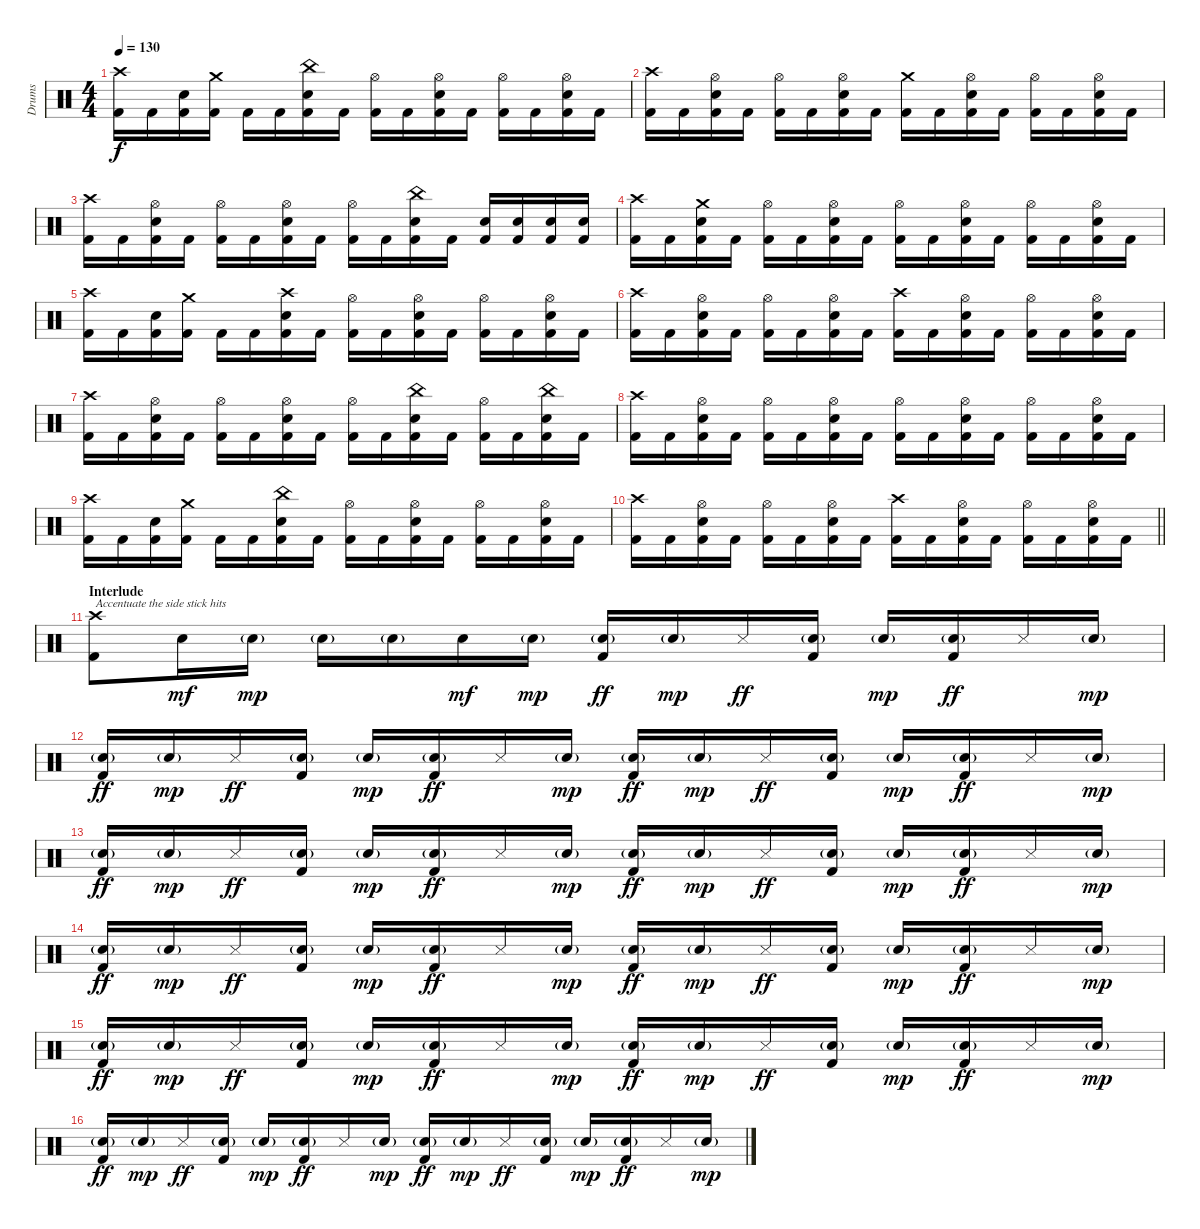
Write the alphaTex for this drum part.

\track ("Drums" "Drums") {instrument percussion}
\staff {score}
\articulation defaults
\ts (4 4)
\tempo 130
\clef neutral
\ks c
("Crash high (hit)" "Kick (hit) 2").16{dy f} "Kick (hit) 2".16 ("Electric Snare (hit)" "Kick (hit) 2").16 ("Crash medium (hit)" "Kick (hit) 2").16 "Kick (hit) 2".16 "Kick (hit) 2".16 ("China (hit)" "Electric Snare (hit)" "Kick (hit) 2").16 "Kick (hit) 2".16 ("Hi-Hat (open)" "Kick (hit) 2").16 "Kick (hit) 2".16 ("Hi-Hat (open)" "Electric Snare (hit)" "Kick (hit) 2").16 "Kick (hit) 2".16 ("Hi-Hat (open)" "Kick (hit) 2").16 "Kick (hit) 2".16 ("Hi-Hat (open)" "Electric Snare (hit)" "Kick (hit) 2").16 "Kick (hit) 2".16 |
("Crash high (hit)" "Kick (hit) 2").16 "Kick (hit) 2".16 ("Hi-Hat (open)" "Electric Snare (hit)" "Kick (hit) 2").16 "Kick (hit) 2".16 ("Hi-Hat (open)" "Kick (hit) 2").16 "Kick (hit) 2".16 ("Hi-Hat (open)" "Electric Snare (hit)" "Kick (hit) 2").16 "Kick (hit) 2".16 ("Crash medium (hit)" "Kick (hit) 2").16 "Kick (hit) 2".16 ("Hi-Hat (open)" "Electric Snare (hit)" "Kick (hit) 2").16 "Kick (hit) 2".16 ("Hi-Hat (open)" "Kick (hit) 2").16 "Kick (hit) 2".16 ("Hi-Hat (open)" "Electric Snare (hit)" "Kick (hit) 2").16 "Kick (hit) 2".16 |
("Crash high (hit)" "Kick (hit) 2").16 "Kick (hit) 2".16 ("Hi-Hat (open)" "Electric Snare (hit)" "Kick (hit) 2").16 "Kick (hit) 2".16 ("Hi-Hat (open)" "Kick (hit) 2").16 "Kick (hit) 2".16 ("Hi-Hat (open)" "Electric Snare (hit)" "Kick (hit) 2").16 "Kick (hit) 2".16 ("Hi-Hat (open)" "Kick (hit) 2").16 "Kick (hit) 2".16 ("China (hit)" "Electric Snare (hit)" "Kick (hit) 2").16 "Kick (hit) 2".16 ("Electric Snare (hit)" "Kick (hit) 2").16 ("Electric Snare (hit)" "Kick (hit) 2").16 ("Electric Snare (hit)" "Kick (hit) 2").16 ("Electric Snare (hit)" "Kick (hit) 2").16 |
("Crash high (hit)" "Kick (hit) 2").16 "Kick (hit) 2".16 ("Crash medium (hit)" "Electric Snare (hit)" "Kick (hit) 2").16 "Kick (hit) 2".16 ("Hi-Hat (open)" "Kick (hit) 2").16 "Kick (hit) 2".16 ("Hi-Hat (open)" "Electric Snare (hit)" "Kick (hit) 2").16 "Kick (hit) 2".16 ("Hi-Hat (open)" "Kick (hit) 2").16 "Kick (hit) 2".16 ("Hi-Hat (open)" "Electric Snare (hit)" "Kick (hit) 2").16 "Kick (hit) 2".16 ("Hi-Hat (open)" "Kick (hit) 2").16 "Kick (hit) 2".16 ("Hi-Hat (open)" "Electric Snare (hit)" "Kick (hit) 2").16 "Kick (hit) 2".16 |
("Crash high (hit)" "Kick (hit) 2").16 "Kick (hit) 2".16 ("Electric Snare (hit)" "Kick (hit) 2").16 ("Crash medium (hit)" "Kick (hit) 2").16 "Kick (hit) 2".16 "Kick (hit) 2".16 ("Crash high (hit)" "Electric Snare (hit)" "Kick (hit) 2").16 "Kick (hit) 2".16 ("Hi-Hat (open)" "Kick (hit) 2").16 "Kick (hit) 2".16 ("Hi-Hat (open)" "Electric Snare (hit)" "Kick (hit) 2").16 "Kick (hit) 2".16 ("Hi-Hat (open)" "Kick (hit) 2").16 "Kick (hit) 2".16 ("Hi-Hat (open)" "Electric Snare (hit)" "Kick (hit) 2").16 "Kick (hit) 2".16 |
("Crash high (hit)" "Kick (hit) 2").16 "Kick (hit) 2".16 ("Hi-Hat (open)" "Electric Snare (hit)" "Kick (hit) 2").16 "Kick (hit) 2".16 ("Hi-Hat (open)" "Kick (hit) 2").16 "Kick (hit) 2".16 ("Hi-Hat (open)" "Electric Snare (hit)" "Kick (hit) 2").16 "Kick (hit) 2".16 ("Crash high (hit)" "Kick (hit) 2").16 "Kick (hit) 2".16 ("Hi-Hat (open)" "Electric Snare (hit)" "Kick (hit) 2").16 "Kick (hit) 2".16 ("Hi-Hat (open)" "Kick (hit) 2").16 "Kick (hit) 2".16 ("Hi-Hat (open)" "Electric Snare (hit)" "Kick (hit) 2").16 "Kick (hit) 2".16 |
("Crash high (hit)" "Kick (hit) 2").16 "Kick (hit) 2".16 ("Hi-Hat (open)" "Electric Snare (hit)" "Kick (hit) 2").16 "Kick (hit) 2".16 ("Hi-Hat (open)" "Kick (hit) 2").16 "Kick (hit) 2".16 ("Hi-Hat (open)" "Electric Snare (hit)" "Kick (hit) 2").16 "Kick (hit) 2".16 ("Hi-Hat (open)" "Kick (hit) 2").16 "Kick (hit) 2".16 ("China (hit)" "Electric Snare (hit)" "Kick (hit) 2").16 "Kick (hit) 2".16 ("Hi-Hat (open)" "Kick (hit) 2").16 "Kick (hit) 2".16 ("China (hit)" "Electric Snare (hit)" "Kick (hit) 2").16 "Kick (hit) 2".16 |
("Crash high (hit)" "Kick (hit) 2").16 "Kick (hit) 2".16 ("Hi-Hat (open)" "Electric Snare (hit)" "Kick (hit) 2").16 "Kick (hit) 2".16 ("Hi-Hat (open)" "Kick (hit) 2").16 "Kick (hit) 2".16 ("Hi-Hat (open)" "Electric Snare (hit)" "Kick (hit) 2").16 "Kick (hit) 2".16 ("Hi-Hat (open)" "Kick (hit) 2").16 "Kick (hit) 2".16 ("Hi-Hat (open)" "Electric Snare (hit)" "Kick (hit) 2").16 "Kick (hit) 2".16 ("Hi-Hat (open)" "Kick (hit) 2").16 "Kick (hit) 2".16 ("Hi-Hat (open)" "Electric Snare (hit)" "Kick (hit) 2").16 "Kick (hit) 2".16 |
("Crash high (hit)" "Kick (hit) 2").16 "Kick (hit) 2".16 ("Electric Snare (hit)" "Kick (hit) 2").16 ("Crash medium (hit)" "Kick (hit) 2").16 "Kick (hit) 2".16 "Kick (hit) 2".16 ("China (hit)" "Electric Snare (hit)" "Kick (hit) 2").16 "Kick (hit) 2".16 ("Hi-Hat (open)" "Kick (hit) 2").16 "Kick (hit) 2".16 ("Hi-Hat (open)" "Electric Snare (hit)" "Kick (hit) 2").16 "Kick (hit) 2".16 ("Hi-Hat (open)" "Kick (hit) 2").16 "Kick (hit) 2".16 ("Hi-Hat (open)" "Electric Snare (hit)" "Kick (hit) 2").16 "Kick (hit) 2".16 |
\barLineRight lightlight
("Crash high (hit)" "Kick (hit) 2").16 "Kick (hit) 2".16 ("Hi-Hat (open)" "Electric Snare (hit)" "Kick (hit) 2").16 "Kick (hit) 2".16 ("Hi-Hat (open)" "Kick (hit) 2").16 "Kick (hit) 2".16 ("Hi-Hat (open)" "Electric Snare (hit)" "Kick (hit) 2").16 "Kick (hit) 2".16 ("Crash high (hit)" "Kick (hit) 2").16 "Kick (hit) 2".16 ("Hi-Hat (open)" "Electric Snare (hit)" "Kick (hit) 2").16 "Kick (hit) 2".16 ("Hi-Hat (open)" "Kick (hit) 2").16 "Kick (hit) 2".16 ("Hi-Hat (open)" "Electric Snare (hit)" "Kick (hit) 2").16 "Kick (hit) 2".16 |
\section ("" "Interlude")
("Crash high (hit)" "Kick (hit) 2").8{txt "Accentuate the side stick hits"} "Electric Snare (hit)".16{dy mf} "Electric Snare (hit)"{g}.16{dy mp} "Electric Snare (hit)"{g}.16 "Electric Snare (hit)"{g}.16 "Electric Snare (hit)".16{dy mf} "Electric Snare (hit)"{g}.16{dy mp} ("Electric Snare (hit)"{g} "Kick (hit) 2").16{dy ff} "Electric Snare (hit)"{g}.16{dy mp} "Snare (side stick) 3".16{dy ff} ("Electric Snare (hit)"{g} "Kick (hit) 2").16 "Electric Snare (hit)"{g}.16{dy mp} ("Electric Snare (hit)"{g} "Kick (hit) 2").16{dy ff} "Snare (side stick) 3".16 "Electric Snare (hit)"{g}.16{dy mp} |
("Electric Snare (hit)"{g} "Kick (hit) 2").16{dy ff} "Electric Snare (hit)"{g}.16{dy mp} "Snare (side stick) 3".16{dy ff} ("Electric Snare (hit)"{g} "Kick (hit) 2").16 "Electric Snare (hit)"{g}.16{dy mp} ("Electric Snare (hit)"{g} "Kick (hit) 2").16{dy ff} "Snare (side stick) 3".16 "Electric Snare (hit)"{g}.16{dy mp} ("Electric Snare (hit)"{g} "Kick (hit) 2").16{dy ff} "Electric Snare (hit)"{g}.16{dy mp} "Snare (side stick) 3".16{dy ff} ("Electric Snare (hit)"{g} "Kick (hit) 2").16 "Electric Snare (hit)"{g}.16{dy mp} ("Electric Snare (hit)"{g} "Kick (hit) 2").16{dy ff} "Snare (side stick) 3".16 "Electric Snare (hit)"{g}.16{dy mp} |
("Electric Snare (hit)"{g} "Kick (hit) 2").16{dy ff} "Electric Snare (hit)"{g}.16{dy mp} "Snare (side stick) 3".16{dy ff} ("Electric Snare (hit)"{g} "Kick (hit) 2").16 "Electric Snare (hit)"{g}.16{dy mp} ("Electric Snare (hit)"{g} "Kick (hit) 2").16{dy ff} "Snare (side stick) 3".16 "Electric Snare (hit)"{g}.16{dy mp} ("Electric Snare (hit)"{g} "Kick (hit) 2").16{dy ff} "Electric Snare (hit)"{g}.16{dy mp} "Snare (side stick) 3".16{dy ff} ("Electric Snare (hit)"{g} "Kick (hit) 2").16 "Electric Snare (hit)"{g}.16{dy mp} ("Electric Snare (hit)"{g} "Kick (hit) 2").16{dy ff} "Snare (side stick) 3".16 "Electric Snare (hit)"{g}.16{dy mp} |
("Electric Snare (hit)"{g} "Kick (hit) 2").16{dy ff} "Electric Snare (hit)"{g}.16{dy mp} "Snare (side stick) 3".16{dy ff} ("Electric Snare (hit)"{g} "Kick (hit) 2").16 "Electric Snare (hit)"{g}.16{dy mp} ("Electric Snare (hit)"{g} "Kick (hit) 2").16{dy ff} "Snare (side stick) 3".16 "Electric Snare (hit)"{g}.16{dy mp} ("Electric Snare (hit)"{g} "Kick (hit) 2").16{dy ff} "Electric Snare (hit)"{g}.16{dy mp} "Snare (side stick) 3".16{dy ff} ("Electric Snare (hit)"{g} "Kick (hit) 2").16 "Electric Snare (hit)"{g}.16{dy mp} ("Electric Snare (hit)"{g} "Kick (hit) 2").16{dy ff} "Snare (side stick) 3".16 "Electric Snare (hit)"{g}.16{dy mp} |
("Electric Snare (hit)"{g} "Kick (hit) 2").16{dy ff} "Electric Snare (hit)"{g}.16{dy mp} "Snare (side stick) 3".16{dy ff} ("Electric Snare (hit)"{g} "Kick (hit) 2").16 "Electric Snare (hit)"{g}.16{dy mp} ("Electric Snare (hit)"{g} "Kick (hit) 2").16{dy ff} "Snare (side stick) 3".16 "Electric Snare (hit)"{g}.16{dy mp} ("Electric Snare (hit)"{g} "Kick (hit) 2").16{dy ff} "Electric Snare (hit)"{g}.16{dy mp} "Snare (side stick) 3".16{dy ff} ("Electric Snare (hit)"{g} "Kick (hit) 2").16 "Electric Snare (hit)"{g}.16{dy mp} ("Electric Snare (hit)"{g} "Kick (hit) 2").16{dy ff} "Snare (side stick) 3".16 "Electric Snare (hit)"{g}.16{dy mp} |
("Electric Snare (hit)"{g} "Kick (hit) 2").16{dy ff} "Electric Snare (hit)"{g}.16{dy mp} "Snare (side stick) 3".16{dy ff} ("Electric Snare (hit)"{g} "Kick (hit) 2").16 "Electric Snare (hit)"{g}.16{dy mp} ("Electric Snare (hit)"{g} "Kick (hit) 2").16{dy ff} "Snare (side stick) 3".16 "Electric Snare (hit)"{g}.16{dy mp} ("Electric Snare (hit)"{g} "Kick (hit) 2").16{dy ff} "Electric Snare (hit)"{g}.16{dy mp} "Snare (side stick) 3".16{dy ff} ("Electric Snare (hit)"{g} "Kick (hit) 2").16 "Electric Snare (hit)"{g}.16{dy mp} ("Electric Snare (hit)"{g} "Kick (hit) 2").16{dy ff} "Snare (side stick) 3".16 "Electric Snare (hit)"{g}.16{dy mp}
